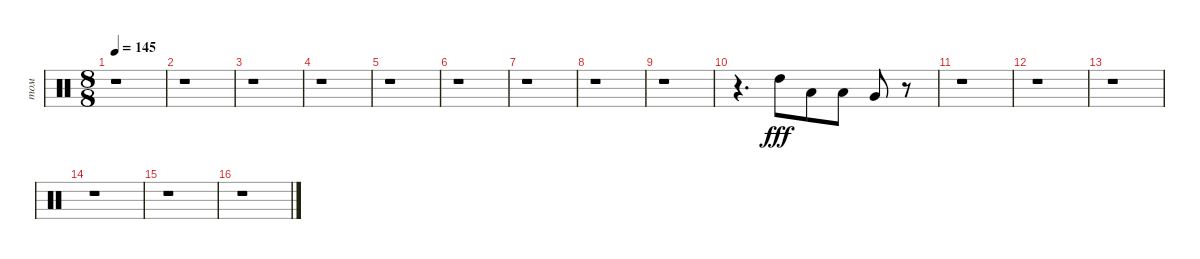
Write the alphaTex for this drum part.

\track ("том" "том") {instrument percussion}
\staff {score}
\articulation defaults
\ts (8 8)
\tempo 145
\clef neutral
\ks c
r.1{dy fff} |
r.1 |
r.1 |
r.1 |
r.1 |
r.1 |
r.1 |
r.1 |
r.1 |
r.4{d} "High Tom (hit)".8 "Low Tom (hit)".8 "Low Tom (hit)".8 "Very Low Tom (hit)".8 r.8 |
r.1 |
r.1 |
r.1 |
r.1 |
r.1 |
r.1
